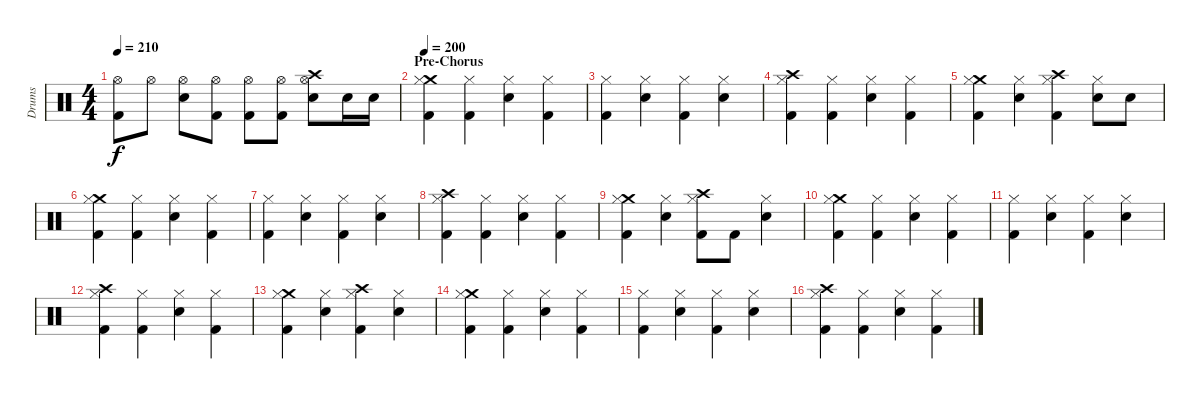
\track ("Drums" "Drums") {instrument percussion}
\staff {score}
\articulation defaults
\ts (4 4)
\tempo 210
\clef neutral
\ks c
("Hi-Hat (open)" "Kick (hit) 2").8{dy f} "Hi-Hat (open)".8 ("Hi-Hat (open)" "Electric Snare (hit)").8 ("Hi-Hat (open)" "Kick (hit) 2").8 ("Hi-Hat (open)" "Kick (hit) 2").8 ("Hi-Hat (open)" "Kick (hit) 2").8 ("Hi-Hat (open)" "Crash high (hit)" "Electric Snare (hit)").8 "Electric Snare (hit)".16 "Electric Snare (hit)".16 |
\section ("" "Pre-Chorus")
\tempo 200
("Crash medium (hit)" "Hi-Hat (closed)" "Kick (hit) 2").4 ("Hi-Hat (closed)" "Kick (hit) 2").4 ("Hi-Hat (closed)" "Electric Snare (hit)").4 ("Hi-Hat (closed)" "Kick (hit) 2").4 |
("Hi-Hat (closed)" "Kick (hit) 2").4 ("Hi-Hat (closed)" "Electric Snare (hit)").4 ("Hi-Hat (closed)" "Kick (hit) 2").4 ("Hi-Hat (closed)" "Electric Snare (hit)").4 |
("Crash high (hit)" "Hi-Hat (closed)" "Kick (hit) 2").4 ("Hi-Hat (closed)" "Kick (hit) 2").4 ("Hi-Hat (closed)" "Electric Snare (hit)").4 ("Hi-Hat (closed)" "Kick (hit) 2").4 |
("Crash medium (hit)" "Hi-Hat (closed)" "Kick (hit) 2").4 ("Hi-Hat (closed)" "Electric Snare (hit)").4 ("Crash high (hit)" "Hi-Hat (closed)" "Kick (hit) 2").4 ("Hi-Hat (closed)" "Electric Snare (hit)").8 "Electric Snare (hit)".8 |
("Crash medium (hit)" "Hi-Hat (closed)" "Kick (hit) 2").4 ("Hi-Hat (closed)" "Kick (hit) 2").4 ("Hi-Hat (closed)" "Electric Snare (hit)").4 ("Hi-Hat (closed)" "Kick (hit) 2").4 |
("Hi-Hat (closed)" "Kick (hit) 2").4 ("Hi-Hat (closed)" "Electric Snare (hit)").4 ("Hi-Hat (closed)" "Kick (hit) 2").4 ("Hi-Hat (closed)" "Electric Snare (hit)").4 |
("Crash high (hit)" "Hi-Hat (closed)" "Kick (hit) 2").4 ("Hi-Hat (closed)" "Kick (hit) 2").4 ("Hi-Hat (closed)" "Electric Snare (hit)").4 ("Hi-Hat (closed)" "Kick (hit) 2").4 |
("Crash medium (hit)" "Hi-Hat (closed)" "Kick (hit) 2").4 ("Hi-Hat (closed)" "Electric Snare (hit)").4 ("Crash high (hit)" "Hi-Hat (closed)" "Kick (hit) 2").8 "Kick (hit) 2".8 ("Hi-Hat (closed)" "Electric Snare (hit)").4 |
("Crash medium (hit)" "Hi-Hat (closed)" "Kick (hit) 2").4 ("Hi-Hat (closed)" "Kick (hit) 2").4 ("Hi-Hat (closed)" "Electric Snare (hit)").4 ("Hi-Hat (closed)" "Kick (hit) 2").4 |
("Hi-Hat (closed)" "Kick (hit) 2").4 ("Hi-Hat (closed)" "Electric Snare (hit)").4 ("Hi-Hat (closed)" "Kick (hit) 2").4 ("Hi-Hat (closed)" "Electric Snare (hit)").4 |
("Crash high (hit)" "Hi-Hat (closed)" "Kick (hit) 2").4 ("Hi-Hat (closed)" "Kick (hit) 2").4 ("Hi-Hat (closed)" "Electric Snare (hit)").4 ("Hi-Hat (closed)" "Kick (hit) 2").4 |
("Crash medium (hit)" "Hi-Hat (closed)" "Kick (hit) 2").4 ("Hi-Hat (closed)" "Electric Snare (hit)").4 ("Crash high (hit)" "Hi-Hat (closed)" "Kick (hit) 2").4 ("Hi-Hat (closed)" "Electric Snare (hit)").4 |
("Crash medium (hit)" "Hi-Hat (closed)" "Kick (hit) 2").4 ("Hi-Hat (closed)" "Kick (hit) 2").4 ("Hi-Hat (closed)" "Electric Snare (hit)").4 ("Hi-Hat (closed)" "Kick (hit) 2").4 |
("Hi-Hat (closed)" "Kick (hit) 2").4 ("Hi-Hat (closed)" "Electric Snare (hit)").4 ("Hi-Hat (closed)" "Kick (hit) 2").4 ("Hi-Hat (closed)" "Electric Snare (hit)").4 |
("Crash high (hit)" "Hi-Hat (closed)" "Kick (hit) 2").4 ("Hi-Hat (closed)" "Kick (hit) 2").4 ("Hi-Hat (closed)" "Electric Snare (hit)").4 ("Hi-Hat (closed)" "Kick (hit) 2").4
